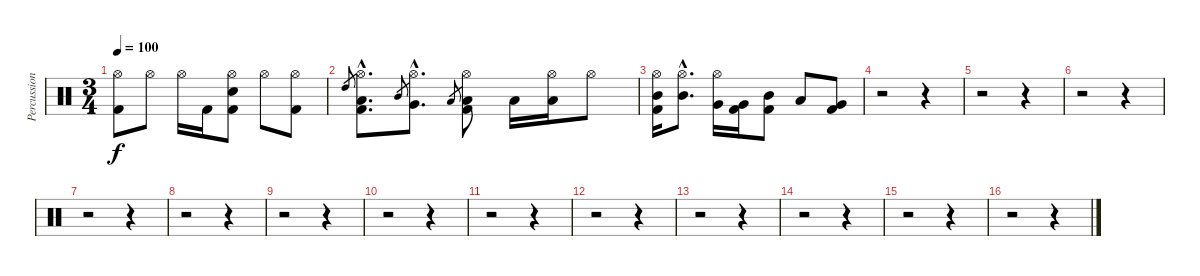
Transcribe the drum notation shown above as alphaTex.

\track ("Percussion" "Percussion") {instrument percussion}
\staff {score}
\articulation defaults
\ts (3 4)
\tempo 100
\clef neutral
\ks c
("Hi-Hat (open)" "Kick (hit) 2").8{dy f} "Hi-Hat (open)".8 "Hi-Hat (open)".16 "Kick (hit) 2".16 ("Hi-Hat (open)" "Electric Snare (hit)" "Kick (hit) 2").8 "Hi-Hat (open)".8 ("Hi-Hat (open)" "Kick (hit) 2").8 |
"High Tom (hit)".8{gr} ("Hi-Hat (open)"{hac} "Low Tom (hit)"{hac} "Kick (hit) 2"{hac}).8{d} "Mid Tom (hit)".8{gr} ("Hi-Hat (open)"{hac} "Very Low Tom (hit)"{hac}).8{d} "Low Tom (hit)".8{gr} ("Hi-Hat (open)" "Low Floor Tom (hit)" "Kick (hit) 2").8 "Low Floor Tom (hit)".16 ("Hi-Hat (open)" "Low Floor Tom (hit)").16 "Hi-Hat (open)".8 |
("Hi-Hat (open)" "Mid Tom (hit)" "Kick (hit) 2").16 ("Hi-Hat (open)"{hac} "Mid Tom (hit)"{hac}).8{d} ("Hi-Hat (open)" "Very Low Tom (hit)").16 ("Very Low Tom (hit)" "Kick (hit) 2").16 ("Mid Tom (hit)" "Kick (hit) 2").8 "Low Tom (hit)".8 ("Very Low Tom (hit)" "Kick (hit) 2").8 |
r.2 r.4 |
r.2 r.4 |
r.2 r.4 |
r.2 r.4 |
r.2 r.4 |
r.2 r.4 |
r.2 r.4 |
r.2 r.4 |
r.2 r.4 |
r.2 r.4 |
r.2 r.4 |
r.2 r.4 |
r.2 r.4
